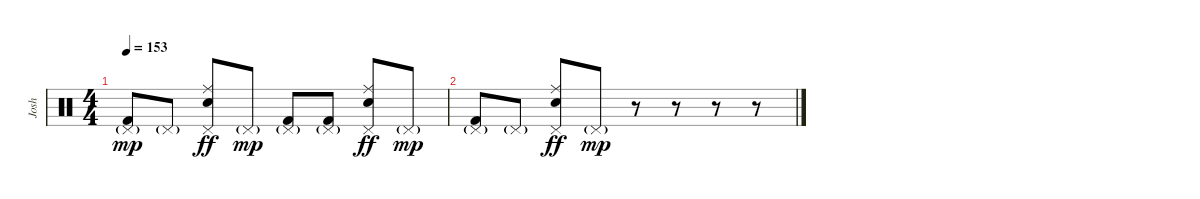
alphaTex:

\track ("Josh" "Josh") {instrument percussion}
\staff {score}
\articulation defaults
\ts (4 4)
\tempo 153
\clef neutral
\ks c
("Pedal Hi-Hat (hit)"{g} "Kick (hit) 2").8{dy mp} "Pedal Hi-Hat (hit)"{g}.8 ("Ride (middle)" "Pedal Hi-Hat (hit)" "Electric Snare (hit)").8{dy ff} "Pedal Hi-Hat (hit)"{g}.8{dy mp} ("Pedal Hi-Hat (hit)"{g} "Kick (hit) 2").8 ("Pedal Hi-Hat (hit)"{g} "Kick (hit) 2").8 ("Ride (middle)" "Pedal Hi-Hat (hit)" "Electric Snare (hit)").8{dy ff} "Pedal Hi-Hat (hit)"{g}.8{dy mp} |
("Pedal Hi-Hat (hit)"{g} "Kick (hit) 2").8 "Pedal Hi-Hat (hit)"{g}.8 ("Ride (middle)" "Pedal Hi-Hat (hit)" "Electric Snare (hit)").8{dy ff} "Pedal Hi-Hat (hit)"{g}.8{dy mp} r.8 r.8 r.8 r.8
